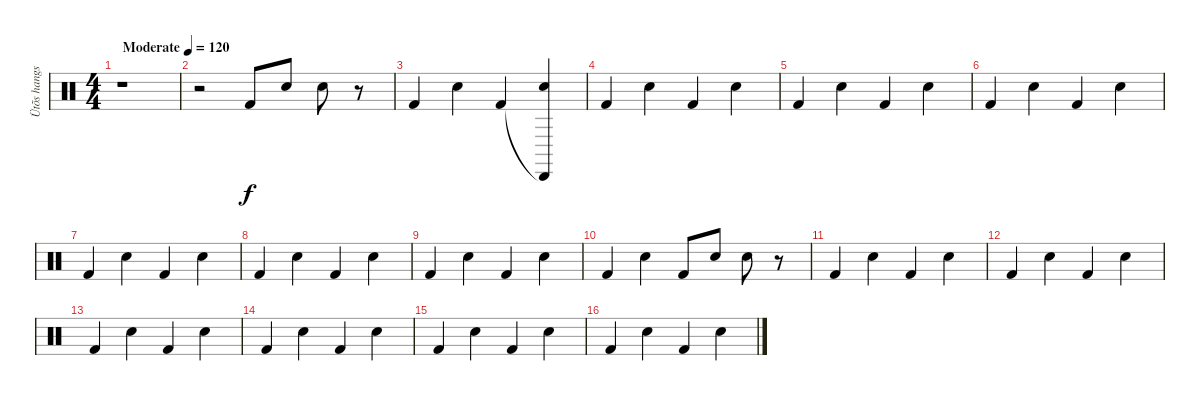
\track ("Ütõs hangszer" "Ütõs hangs") {instrument percussion}
\staff {score}
\articulation defaults
\ts (4 4)
\tempo (120 "Moderate")
\clef neutral
\ks c
r.1{dy f} |
r.2 "Kick (hit) 2".8 "Electric Snare (hit)".8 "Electric Snare (hit)".8 r.8 |
"Kick (hit) 2".4 "Electric Snare (hit)".4 "Kick (hit) 2".4 ("Cabasa (hit)"{t} "Electric Snare (hit)").4 |
"Kick (hit) 2".4 "Electric Snare (hit)".4 "Kick (hit) 2".4 "Electric Snare (hit)".4 |
"Kick (hit) 2".4 "Electric Snare (hit)".4 "Kick (hit) 2".4 "Electric Snare (hit)".4 |
"Kick (hit) 2".4 "Electric Snare (hit)".4 "Kick (hit) 2".4 "Electric Snare (hit)".4 |
"Kick (hit) 2".4 "Electric Snare (hit)".4 "Kick (hit) 2".4 "Electric Snare (hit)".4 |
"Kick (hit) 2".4 "Electric Snare (hit)".4 "Kick (hit) 2".4 "Electric Snare (hit)".4 |
"Kick (hit) 2".4 "Electric Snare (hit)".4 "Kick (hit) 2".4 "Electric Snare (hit)".4 |
"Kick (hit) 2".4 "Electric Snare (hit)".4 "Kick (hit) 2".8 "Electric Snare (hit)".8 "Electric Snare (hit)".8 r.8 |
"Kick (hit) 2".4 "Electric Snare (hit)".4 "Kick (hit) 2".4 "Electric Snare (hit)".4 |
"Kick (hit) 2".4 "Electric Snare (hit)".4 "Kick (hit) 2".4 "Electric Snare (hit)".4 |
"Kick (hit) 2".4 "Electric Snare (hit)".4 "Kick (hit) 2".4 "Electric Snare (hit)".4 |
"Kick (hit) 2".4 "Electric Snare (hit)".4 "Kick (hit) 2".4 "Electric Snare (hit)".4 |
"Kick (hit) 2".4 "Electric Snare (hit)".4 "Kick (hit) 2".4 "Electric Snare (hit)".4 |
"Kick (hit) 2".4 "Electric Snare (hit)".4 "Kick (hit) 2".4 "Electric Snare (hit)".4
